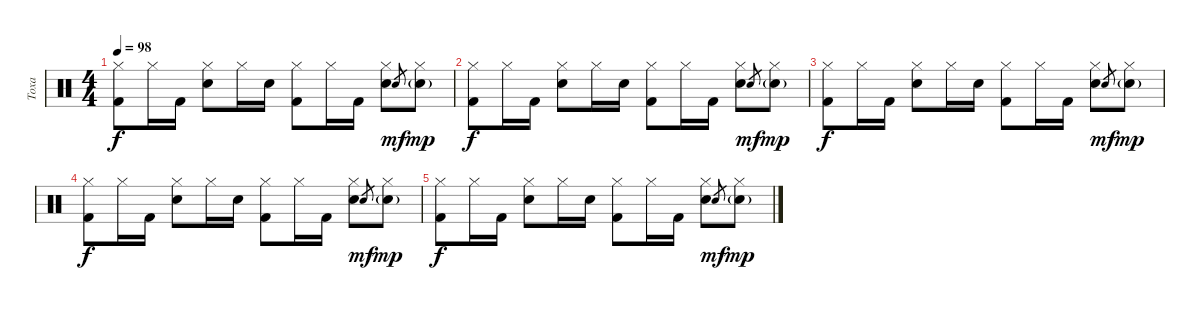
\track ("Toxa" "Toxa") {instrument percussion}
\staff {score}
\articulation defaults
\ts (4 4)
\tempo 98
\clef neutral
\ks c
("Hi-Hat (closed)" "Kick (hit) 2").8{dy f} "Hi-Hat (closed)".16 "Kick (hit) 2".16 ("Hi-Hat (closed)" "Electric Snare (hit)").8 "Hi-Hat (closed)".16 "Electric Snare (hit)".16 ("Hi-Hat (closed)" "Kick (hit) 2").8 "Hi-Hat (closed)".16 "Kick (hit) 2".16 ("Hi-Hat (closed)" "Electric Snare (hit)").8 "Electric Snare (hit)".8{gr dy mf} ("Hi-Hat (closed)" "Electric Snare (hit)"{g}).8{dy mp} |
("Hi-Hat (closed)" "Kick (hit) 2").8{dy f} "Hi-Hat (closed)".16 "Kick (hit) 2".16 ("Hi-Hat (closed)" "Electric Snare (hit)").8 "Hi-Hat (closed)".16 "Electric Snare (hit)".16 ("Hi-Hat (closed)" "Kick (hit) 2").8 "Hi-Hat (closed)".16 "Kick (hit) 2".16 ("Hi-Hat (closed)" "Electric Snare (hit)").8 "Electric Snare (hit)".8{gr dy mf} ("Hi-Hat (closed)" "Electric Snare (hit)"{g}).8{dy mp} |
("Hi-Hat (closed)" "Kick (hit) 2").8{dy f} "Hi-Hat (closed)".16 "Kick (hit) 2".16 ("Hi-Hat (closed)" "Electric Snare (hit)").8 "Hi-Hat (closed)".16 "Electric Snare (hit)".16 ("Hi-Hat (closed)" "Kick (hit) 2").8 "Hi-Hat (closed)".16 "Kick (hit) 2".16 ("Hi-Hat (closed)" "Electric Snare (hit)").8 "Electric Snare (hit)".8{gr dy mf} ("Hi-Hat (closed)" "Electric Snare (hit)"{g}).8{dy mp} |
("Hi-Hat (closed)" "Kick (hit) 2").8{dy f} "Hi-Hat (closed)".16 "Kick (hit) 2".16 ("Hi-Hat (closed)" "Electric Snare (hit)").8 "Hi-Hat (closed)".16 "Electric Snare (hit)".16 ("Hi-Hat (closed)" "Kick (hit) 2").8 "Hi-Hat (closed)".16 "Kick (hit) 2".16 ("Hi-Hat (closed)" "Electric Snare (hit)").8 "Electric Snare (hit)".8{gr dy mf} ("Hi-Hat (closed)" "Electric Snare (hit)"{g}).8{dy mp} |
("Hi-Hat (closed)" "Kick (hit) 2").8{dy f} "Hi-Hat (closed)".16 "Kick (hit) 2".16 ("Hi-Hat (closed)" "Electric Snare (hit)").8 "Hi-Hat (closed)".16 "Electric Snare (hit)".16 ("Hi-Hat (closed)" "Kick (hit) 2").8 "Hi-Hat (closed)".16 "Kick (hit) 2".16 ("Hi-Hat (closed)" "Electric Snare (hit)").8 "Electric Snare (hit)".8{gr dy mf} ("Hi-Hat (closed)" "Electric Snare (hit)"{g}).8{dy mp}
